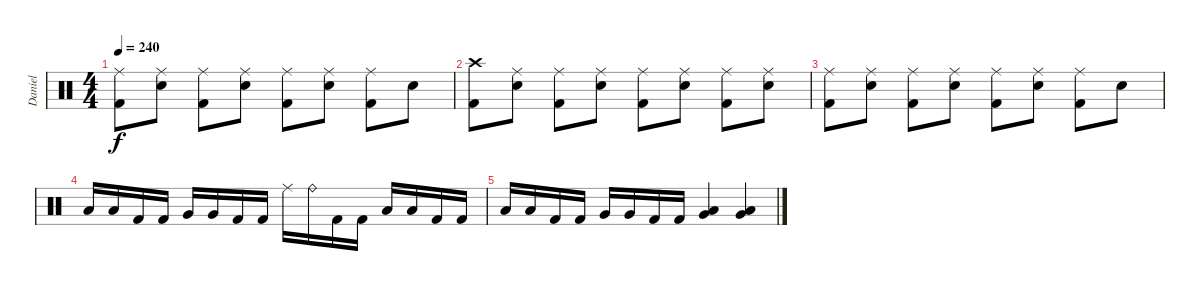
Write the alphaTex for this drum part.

\track ("Daniel" "Daniel") {instrument percussion}
\staff {score}
\articulation defaults
\ts (4 4)
\tempo 240
\clef neutral
\ks c
("Ride (middle)" "Kick (hit) 2").8{dy f} ("Ride (middle)" "Electric Snare (hit)").8 ("Ride (middle)" "Kick (hit) 2").8 ("Ride (middle)" "Electric Snare (hit)").8 ("Ride (middle)" "Kick (hit) 2").8 ("Ride (middle)" "Electric Snare (hit)").8 ("Ride (middle)" "Kick (hit) 2").8 "Electric Snare (hit)".8 |
("Crash high (hit)" "Kick (hit) 2").8 ("Ride (middle)" "Electric Snare (hit)").8 ("Ride (middle)" "Kick (hit) 2").8 ("Ride (middle)" "Electric Snare (hit)").8 ("Ride (middle)" "Kick (hit) 2").8 ("Ride (middle)" "Electric Snare (hit)").8 ("Ride (middle)" "Kick (hit) 2").8 ("Ride (middle)" "Electric Snare (hit)").8 |
("Ride (middle)" "Kick (hit) 2").8 ("Ride (middle)" "Electric Snare (hit)").8 ("Ride (middle)" "Kick (hit) 2").8 ("Ride (middle)" "Electric Snare (hit)").8 ("Ride (middle)" "Kick (hit) 2").8 ("Ride (middle)" "Electric Snare (hit)").8 ("Ride (middle)" "Kick (hit) 2").8 "Electric Snare (hit)".8 |
"Low Tom (hit)".16 "Low Tom (hit)".16 "Kick (hit) 2".16 "Kick (hit) 2".16 "Very Low Tom (hit)".16 "Very Low Tom (hit)".16 "Kick (hit) 2".16 "Kick (hit) 2".16 "Ride (middle)".16 "Ride (bell)".16 "Kick (hit) 2".16 "Kick (hit) 2".16 "Low Floor Tom (hit)".16 "Low Floor Tom (hit)".16 "Kick (hit) 2".16 "Kick (hit) 2".16 |
"Low Tom (hit)".16 "Low Tom (hit)".16 "Kick (hit) 2".16 "Kick (hit) 2".16 "Very Low Tom (hit)".16 "Very Low Tom (hit)".16 "Kick (hit) 2".16 "Kick (hit) 2".16 ("Low Floor Tom (hit)" "Very Low Tom (hit)").4 ("Low Floor Tom (hit)" "Very Low Tom (hit)").4
